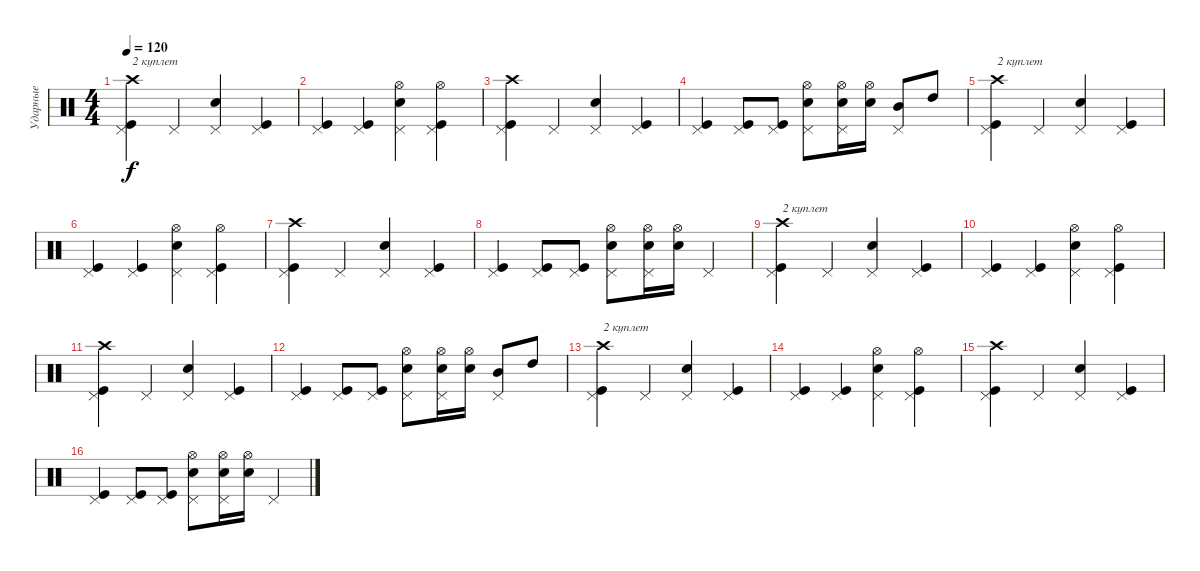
\track ("Ударные" "Ударные") {instrument percussion}
\staff {score}
\articulation defaults
\ts (4 4)
\tempo 120
\clef neutral
\ks c
("Crash high (hit)" "Kick (hit)" "Pedal Hi-Hat (hit)").4{txt "2 куплет" dy f} "Pedal Hi-Hat (hit)".4 ("Snare (hit) 2" "Pedal Hi-Hat (hit)").4 ("Kick (hit)" "Pedal Hi-Hat (hit)").4 |
("Kick (hit)" "Pedal Hi-Hat (hit)").4 ("Kick (hit)" "Pedal Hi-Hat (hit)").4 ("Hi-Hat (open)" "Snare (hit) 2" "Pedal Hi-Hat (hit)").4 ("Hi-Hat (open)" "Kick (hit)" "Pedal Hi-Hat (hit)").4 |
("Crash high (hit)" "Kick (hit)" "Pedal Hi-Hat (hit)").4 "Pedal Hi-Hat (hit)".4 ("Snare (hit) 2" "Pedal Hi-Hat (hit)").4 ("Kick (hit)" "Pedal Hi-Hat (hit)").4 |
("Kick (hit)" "Pedal Hi-Hat (hit)").4 ("Kick (hit)" "Pedal Hi-Hat (hit)").8 ("Kick (hit)" "Pedal Hi-Hat (hit)").8 ("Hi-Hat (open)" "Snare (hit) 2" "Pedal Hi-Hat (hit)").8 ("Hi-Hat (open)" "Snare (hit) 2" "Pedal Hi-Hat (hit)").16 ("Hi-Hat (open)" "Snare (hit) 2").16 ("Mid Tom (hit)" "Pedal Hi-Hat (hit)").8 "High Tom (hit)".8 |
("Crash high (hit)" "Kick (hit)" "Pedal Hi-Hat (hit)").4{txt "2 куплет"} "Pedal Hi-Hat (hit)".4 ("Snare (hit) 2" "Pedal Hi-Hat (hit)").4 ("Kick (hit)" "Pedal Hi-Hat (hit)").4 |
("Kick (hit)" "Pedal Hi-Hat (hit)").4 ("Kick (hit)" "Pedal Hi-Hat (hit)").4 ("Hi-Hat (open)" "Snare (hit) 2" "Pedal Hi-Hat (hit)").4 ("Hi-Hat (open)" "Kick (hit)" "Pedal Hi-Hat (hit)").4 |
("Crash high (hit)" "Kick (hit)" "Pedal Hi-Hat (hit)").4 "Pedal Hi-Hat (hit)".4 ("Snare (hit) 2" "Pedal Hi-Hat (hit)").4 ("Kick (hit)" "Pedal Hi-Hat (hit)").4 |
("Kick (hit)" "Pedal Hi-Hat (hit)").4 ("Kick (hit)" "Pedal Hi-Hat (hit)").8 ("Kick (hit)" "Pedal Hi-Hat (hit)").8 ("Hi-Hat (open)" "Snare (hit) 2" "Pedal Hi-Hat (hit)").8 ("Hi-Hat (open)" "Snare (hit) 2" "Pedal Hi-Hat (hit)").16 ("Hi-Hat (open)" "Snare (hit) 2").16 "Pedal Hi-Hat (hit)".4 |
("Crash high (hit)" "Kick (hit)" "Pedal Hi-Hat (hit)").4{txt "2 куплет"} "Pedal Hi-Hat (hit)".4 ("Snare (hit) 2" "Pedal Hi-Hat (hit)").4 ("Kick (hit)" "Pedal Hi-Hat (hit)").4 |
("Kick (hit)" "Pedal Hi-Hat (hit)").4 ("Kick (hit)" "Pedal Hi-Hat (hit)").4 ("Hi-Hat (open)" "Snare (hit) 2" "Pedal Hi-Hat (hit)").4 ("Hi-Hat (open)" "Kick (hit)" "Pedal Hi-Hat (hit)").4 |
("Crash high (hit)" "Kick (hit)" "Pedal Hi-Hat (hit)").4 "Pedal Hi-Hat (hit)".4 ("Snare (hit) 2" "Pedal Hi-Hat (hit)").4 ("Kick (hit)" "Pedal Hi-Hat (hit)").4 |
("Kick (hit)" "Pedal Hi-Hat (hit)").4 ("Kick (hit)" "Pedal Hi-Hat (hit)").8 ("Kick (hit)" "Pedal Hi-Hat (hit)").8 ("Hi-Hat (open)" "Snare (hit) 2" "Pedal Hi-Hat (hit)").8 ("Hi-Hat (open)" "Snare (hit) 2" "Pedal Hi-Hat (hit)").16 ("Hi-Hat (open)" "Snare (hit) 2").16 ("Mid Tom (hit)" "Pedal Hi-Hat (hit)").8 "High Tom (hit)".8 |
("Crash high (hit)" "Kick (hit)" "Pedal Hi-Hat (hit)").4{txt "2 куплет"} "Pedal Hi-Hat (hit)".4 ("Snare (hit) 2" "Pedal Hi-Hat (hit)").4 ("Kick (hit)" "Pedal Hi-Hat (hit)").4 |
("Kick (hit)" "Pedal Hi-Hat (hit)").4 ("Kick (hit)" "Pedal Hi-Hat (hit)").4 ("Hi-Hat (open)" "Snare (hit) 2" "Pedal Hi-Hat (hit)").4 ("Hi-Hat (open)" "Kick (hit)" "Pedal Hi-Hat (hit)").4 |
("Crash high (hit)" "Kick (hit)" "Pedal Hi-Hat (hit)").4 "Pedal Hi-Hat (hit)".4 ("Snare (hit) 2" "Pedal Hi-Hat (hit)").4 ("Kick (hit)" "Pedal Hi-Hat (hit)").4 |
("Kick (hit)" "Pedal Hi-Hat (hit)").4 ("Kick (hit)" "Pedal Hi-Hat (hit)").8 ("Kick (hit)" "Pedal Hi-Hat (hit)").8 ("Hi-Hat (open)" "Snare (hit) 2" "Pedal Hi-Hat (hit)").8 ("Hi-Hat (open)" "Snare (hit) 2" "Pedal Hi-Hat (hit)").16 ("Hi-Hat (open)" "Snare (hit) 2").16 "Pedal Hi-Hat (hit)".4
